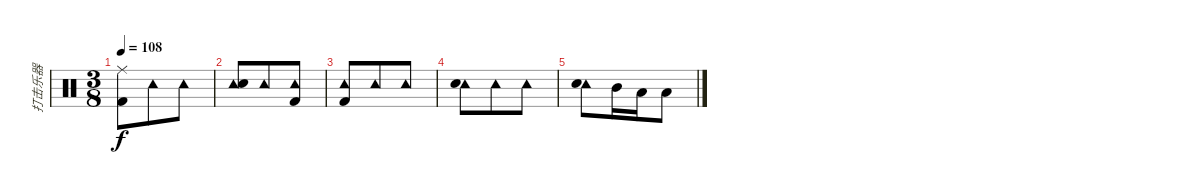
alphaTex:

\track ("打击乐器" "打击乐器") {instrument percussion}
\staff {score}
\articulation defaults
\ts (3 8)
\tempo 108
\clef neutral
\ks c
("Ride (middle)" "Kick (hit) 2").8{dy f} "Tambourine (hit)".8 "Tambourine (hit)".8 |
("Tambourine (hit)" "Snare (hit) 2").8 "Tambourine (hit)".8 ("Tambourine (hit)" "Kick (hit) 2").8 |
("Tambourine (hit)" "Kick (hit) 2").8 "Tambourine (hit)".8 "Tambourine (hit)".8 |
("Tambourine (hit)" "Snare (hit) 2").8 "Tambourine (hit)".8 "Tambourine (hit)".8 |
("Tambourine (hit)" "Snare (hit) 2").8 "Mid Tom (hit)".16 "Low Tom (hit)".16 "Low Floor Tom (hit)".8
